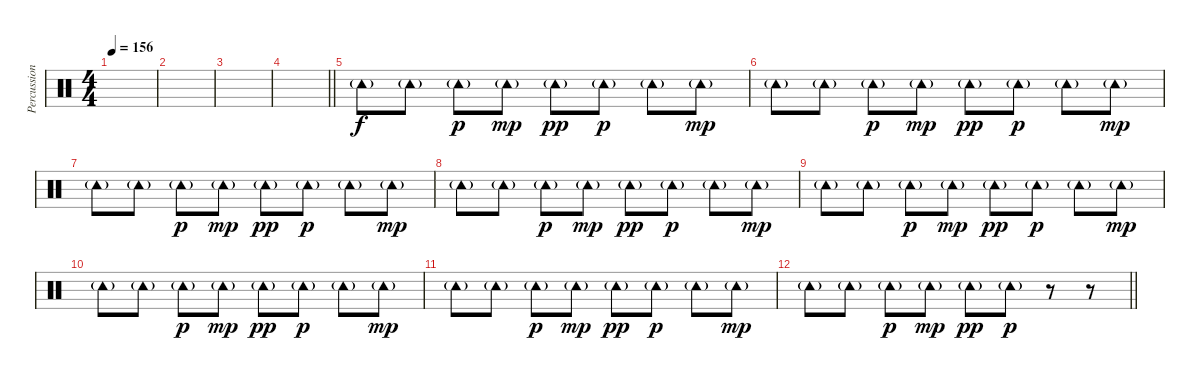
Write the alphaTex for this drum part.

\track ("Percussion 2" "Percussion") {instrument percussion}
\staff {score}
\articulation defaults
\ts (4 4)
\tempo 156
\clef neutral
\ks c
|
|
|
\barLineRight lightlight
|
"Tambourine (hit)"{g}.8 "Tambourine (hit)"{g}.8 "Tambourine (hit)"{g}.8{dy p} "Tambourine (hit)"{g}.8{dy mp} "Tambourine (hit)"{g}.8{dy pp} "Tambourine (hit)"{g}.8{dy p} "Tambourine (hit)"{g}.8 "Tambourine (hit)"{g}.8{dy mp} |
"Tambourine (hit)"{g}.8 "Tambourine (hit)"{g}.8 "Tambourine (hit)"{g}.8{dy p} "Tambourine (hit)"{g}.8{dy mp} "Tambourine (hit)"{g}.8{dy pp} "Tambourine (hit)"{g}.8{dy p} "Tambourine (hit)"{g}.8 "Tambourine (hit)"{g}.8{dy mp} |
"Tambourine (hit)"{g}.8 "Tambourine (hit)"{g}.8 "Tambourine (hit)"{g}.8{dy p} "Tambourine (hit)"{g}.8{dy mp} "Tambourine (hit)"{g}.8{dy pp} "Tambourine (hit)"{g}.8{dy p} "Tambourine (hit)"{g}.8 "Tambourine (hit)"{g}.8{dy mp} |
"Tambourine (hit)"{g}.8 "Tambourine (hit)"{g}.8 "Tambourine (hit)"{g}.8{dy p} "Tambourine (hit)"{g}.8{dy mp} "Tambourine (hit)"{g}.8{dy pp} "Tambourine (hit)"{g}.8{dy p} "Tambourine (hit)"{g}.8 "Tambourine (hit)"{g}.8{dy mp} |
"Tambourine (hit)"{g}.8 "Tambourine (hit)"{g}.8 "Tambourine (hit)"{g}.8{dy p} "Tambourine (hit)"{g}.8{dy mp} "Tambourine (hit)"{g}.8{dy pp} "Tambourine (hit)"{g}.8{dy p} "Tambourine (hit)"{g}.8 "Tambourine (hit)"{g}.8{dy mp} |
"Tambourine (hit)"{g}.8 "Tambourine (hit)"{g}.8 "Tambourine (hit)"{g}.8{dy p} "Tambourine (hit)"{g}.8{dy mp} "Tambourine (hit)"{g}.8{dy pp} "Tambourine (hit)"{g}.8{dy p} "Tambourine (hit)"{g}.8 "Tambourine (hit)"{g}.8{dy mp} |
"Tambourine (hit)"{g}.8 "Tambourine (hit)"{g}.8 "Tambourine (hit)"{g}.8{dy p} "Tambourine (hit)"{g}.8{dy mp} "Tambourine (hit)"{g}.8{dy pp} "Tambourine (hit)"{g}.8{dy p} "Tambourine (hit)"{g}.8 "Tambourine (hit)"{g}.8{dy mp} |
\barLineRight lightlight "Tambourine (hit)"{g}.8 "Tambourine (hit)"{g}.8 "Tambourine (hit)"{g}.8{dy p} "Tambourine (hit)"{g}.8{dy mp} "Tambourine (hit)"{g}.8{dy pp} "Tambourine (hit)"{g}.8{dy p}
r.8 r.8
